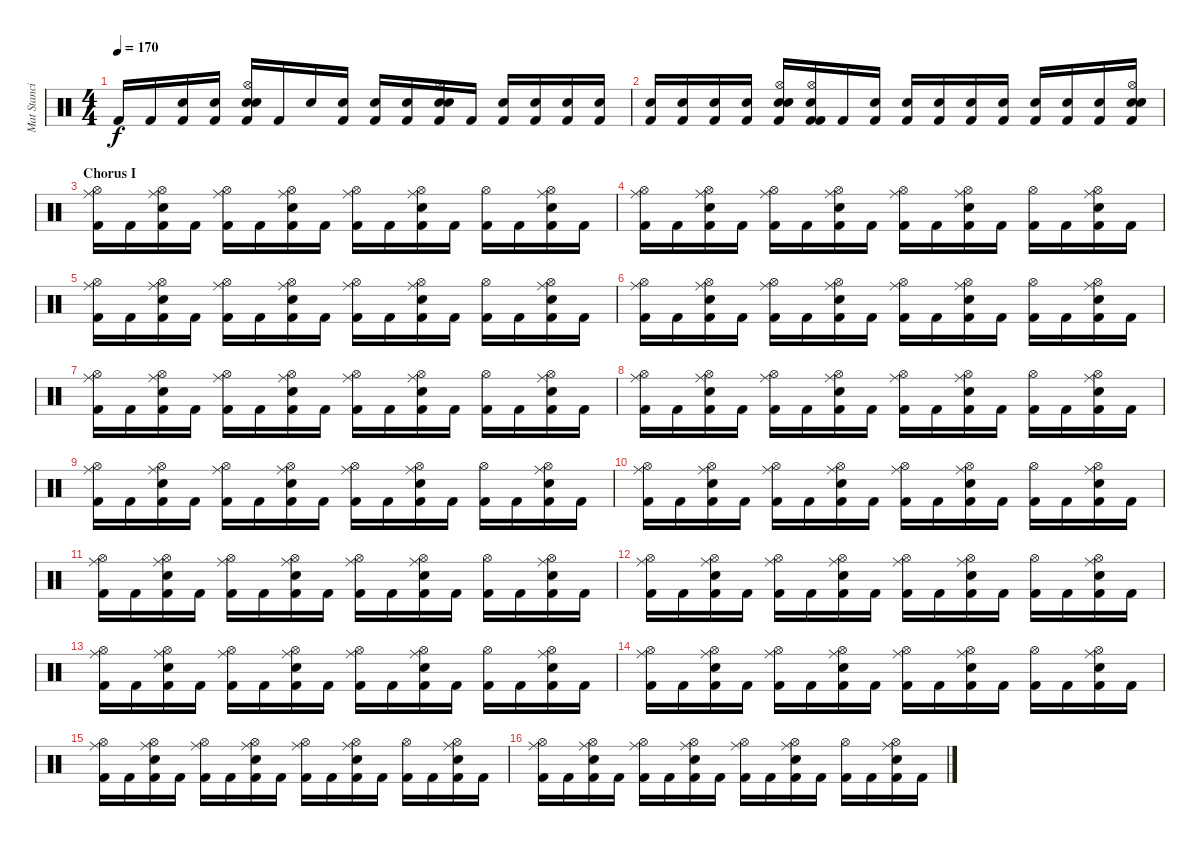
\track ("Mat Stancioiu" "Mat Stanci") {instrument percussion}
\staff {score}
\articulation defaults
\ts (4 4)
\tempo 170
\clef neutral
\ks c "Kick (hit) 2".16{dy f} "Kick (hit) 2".16
("Electric Snare (hit)" "Kick (hit) 2").16 ("Electric Snare (hit)" "Kick (hit) 2").16 ("Electric Snare (hit)" "Kick (hit) 2" "Hi-Hat (open)" "Snare (hit)").16 "Kick (hit) 2".16 "Electric Snare (hit)".16 ("Electric Snare (hit)" "Kick (hit) 2").16 ("Electric Snare (hit)" "Kick (hit) 2").16 ("Electric Snare (hit)" "Kick (hit) 2").16 ("Electric Snare (hit)" "Kick (hit) 2" "Hi-Hat (open)" "Snare (hit)").16 "Kick (hit) 2".16 ("Electric Snare (hit)" "Kick (hit) 2").16 ("Electric Snare (hit)" "Kick (hit) 2").16 ("Electric Snare (hit)" "Kick (hit) 2").16 ("Electric Snare (hit)" "Kick (hit) 2").16 |
("Electric Snare (hit)" "Kick (hit) 2").16 ("Electric Snare (hit)" "Kick (hit) 2").16 ("Electric Snare (hit)" "Kick (hit) 2").16 ("Electric Snare (hit)" "Kick (hit) 2").16 ("Electric Snare (hit)" "Kick (hit) 2" "Hi-Hat (open)" "Snare (hit)").16 ("Kick (hit) 2" "Kick (hit) 2" "Hi-Hat (open)" "Snare (hit)").16 "Kick (hit) 2".16 ("Electric Snare (hit)" "Kick (hit) 2").16 ("Electric Snare (hit)" "Kick (hit) 2").16 ("Electric Snare (hit)" "Kick (hit) 2").16 ("Electric Snare (hit)" "Kick (hit) 2").16 ("Electric Snare (hit)" "Kick (hit) 2").16 ("Electric Snare (hit)" "Kick (hit) 2").16 ("Electric Snare (hit)" "Kick (hit) 2").16 ("Electric Snare (hit)" "Kick (hit) 2").16 ("Electric Snare (hit)" "Kick (hit) 2" "Hi-Hat (open)" "Snare (hit)").16 |
\section ("" "Chorus I")
("Hi-Hat (open)" "Kick (hit) 2" "Ride (middle)").16 "Kick (hit) 2".16 ("Electric Snare (hit)" "Hi-Hat (open)" "Kick (hit) 2" "Ride (middle)").16 "Kick (hit) 2".16 ("Hi-Hat (open)" "Kick (hit) 2" "Ride (middle)").16 "Kick (hit) 2".16 ("Electric Snare (hit)" "Hi-Hat (open)" "Kick (hit) 2" "Ride (middle)").16 "Kick (hit) 2".16 ("Hi-Hat (open)" "Kick (hit) 2" "Ride (middle)").16 "Kick (hit) 2".16 ("Electric Snare (hit)" "Hi-Hat (open)" "Kick (hit) 2" "Ride (middle)").16 "Kick (hit) 2".16 ("Hi-Hat (open)" "Kick (hit) 2").16 "Kick (hit) 2".16 ("Electric Snare (hit)" "Hi-Hat (open)" "Kick (hit) 2" "Ride (middle)").16 "Kick (hit) 2".16 |
("Hi-Hat (open)" "Kick (hit) 2" "Ride (middle)").16 "Kick (hit) 2".16 ("Electric Snare (hit)" "Hi-Hat (open)" "Kick (hit) 2" "Ride (middle)").16 "Kick (hit) 2".16 ("Hi-Hat (open)" "Kick (hit) 2" "Ride (middle)").16 "Kick (hit) 2".16 ("Electric Snare (hit)" "Hi-Hat (open)" "Kick (hit) 2" "Ride (middle)").16 "Kick (hit) 2".16 ("Hi-Hat (open)" "Kick (hit) 2" "Ride (middle)").16 "Kick (hit) 2".16 ("Electric Snare (hit)" "Hi-Hat (open)" "Kick (hit) 2" "Ride (middle)").16 "Kick (hit) 2".16 ("Hi-Hat (open)" "Kick (hit) 2").16 "Kick (hit) 2".16 ("Electric Snare (hit)" "Hi-Hat (open)" "Kick (hit) 2" "Ride (middle)").16 "Kick (hit) 2".16 |
("Hi-Hat (open)" "Kick (hit) 2" "Ride (middle)").16 "Kick (hit) 2".16 ("Electric Snare (hit)" "Hi-Hat (open)" "Kick (hit) 2" "Ride (middle)").16 "Kick (hit) 2".16 ("Hi-Hat (open)" "Kick (hit) 2" "Ride (middle)").16 "Kick (hit) 2".16 ("Electric Snare (hit)" "Hi-Hat (open)" "Kick (hit) 2" "Ride (middle)").16 "Kick (hit) 2".16 ("Hi-Hat (open)" "Kick (hit) 2" "Ride (middle)").16 "Kick (hit) 2".16 ("Electric Snare (hit)" "Hi-Hat (open)" "Kick (hit) 2" "Ride (middle)").16 "Kick (hit) 2".16 ("Hi-Hat (open)" "Kick (hit) 2").16 "Kick (hit) 2".16 ("Electric Snare (hit)" "Hi-Hat (open)" "Kick (hit) 2" "Ride (middle)").16 "Kick (hit) 2".16 |
("Hi-Hat (open)" "Kick (hit) 2" "Ride (middle)").16 "Kick (hit) 2".16 ("Electric Snare (hit)" "Hi-Hat (open)" "Kick (hit) 2" "Ride (middle)").16 "Kick (hit) 2".16 ("Hi-Hat (open)" "Kick (hit) 2" "Ride (middle)").16 "Kick (hit) 2".16 ("Electric Snare (hit)" "Hi-Hat (open)" "Kick (hit) 2" "Ride (middle)").16 "Kick (hit) 2".16 ("Hi-Hat (open)" "Kick (hit) 2" "Ride (middle)").16 "Kick (hit) 2".16 ("Electric Snare (hit)" "Hi-Hat (open)" "Kick (hit) 2" "Ride (middle)").16 "Kick (hit) 2".16 ("Hi-Hat (open)" "Kick (hit) 2").16 "Kick (hit) 2".16 ("Electric Snare (hit)" "Hi-Hat (open)" "Kick (hit) 2" "Ride (middle)").16 "Kick (hit) 2".16 |
("Hi-Hat (open)" "Kick (hit) 2" "Ride (middle)").16 "Kick (hit) 2".16 ("Electric Snare (hit)" "Hi-Hat (open)" "Kick (hit) 2" "Ride (middle)").16 "Kick (hit) 2".16 ("Hi-Hat (open)" "Kick (hit) 2" "Ride (middle)").16 "Kick (hit) 2".16 ("Electric Snare (hit)" "Hi-Hat (open)" "Kick (hit) 2" "Ride (middle)").16 "Kick (hit) 2".16 ("Hi-Hat (open)" "Kick (hit) 2" "Ride (middle)").16 "Kick (hit) 2".16 ("Electric Snare (hit)" "Hi-Hat (open)" "Kick (hit) 2" "Ride (middle)").16 "Kick (hit) 2".16 ("Hi-Hat (open)" "Kick (hit) 2").16 "Kick (hit) 2".16 ("Electric Snare (hit)" "Hi-Hat (open)" "Kick (hit) 2" "Ride (middle)").16 "Kick (hit) 2".16 |
("Hi-Hat (open)" "Kick (hit) 2" "Ride (middle)").16 "Kick (hit) 2".16 ("Electric Snare (hit)" "Hi-Hat (open)" "Kick (hit) 2" "Ride (middle)").16 "Kick (hit) 2".16 ("Hi-Hat (open)" "Kick (hit) 2" "Ride (middle)").16 "Kick (hit) 2".16 ("Electric Snare (hit)" "Hi-Hat (open)" "Kick (hit) 2" "Ride (middle)").16 "Kick (hit) 2".16 ("Hi-Hat (open)" "Kick (hit) 2" "Ride (middle)").16 "Kick (hit) 2".16 ("Electric Snare (hit)" "Hi-Hat (open)" "Kick (hit) 2" "Ride (middle)").16 "Kick (hit) 2".16 ("Hi-Hat (open)" "Kick (hit) 2").16 "Kick (hit) 2".16 ("Electric Snare (hit)" "Hi-Hat (open)" "Kick (hit) 2" "Ride (middle)").16 "Kick (hit) 2".16 |
("Hi-Hat (open)" "Kick (hit) 2" "Ride (middle)").16 "Kick (hit) 2".16 ("Electric Snare (hit)" "Hi-Hat (open)" "Kick (hit) 2" "Ride (middle)").16 "Kick (hit) 2".16 ("Hi-Hat (open)" "Kick (hit) 2" "Ride (middle)").16 "Kick (hit) 2".16 ("Electric Snare (hit)" "Hi-Hat (open)" "Kick (hit) 2" "Ride (middle)").16 "Kick (hit) 2".16 ("Hi-Hat (open)" "Kick (hit) 2" "Ride (middle)").16 "Kick (hit) 2".16 ("Electric Snare (hit)" "Hi-Hat (open)" "Kick (hit) 2" "Ride (middle)").16 "Kick (hit) 2".16 ("Hi-Hat (open)" "Kick (hit) 2").16 "Kick (hit) 2".16 ("Electric Snare (hit)" "Hi-Hat (open)" "Kick (hit) 2" "Ride (middle)").16 "Kick (hit) 2".16 |
("Hi-Hat (open)" "Kick (hit) 2" "Ride (middle)").16 "Kick (hit) 2".16 ("Electric Snare (hit)" "Hi-Hat (open)" "Kick (hit) 2" "Ride (middle)").16 "Kick (hit) 2".16 ("Hi-Hat (open)" "Kick (hit) 2" "Ride (middle)").16 "Kick (hit) 2".16 ("Electric Snare (hit)" "Hi-Hat (open)" "Kick (hit) 2" "Ride (middle)").16 "Kick (hit) 2".16 ("Hi-Hat (open)" "Kick (hit) 2" "Ride (middle)").16 "Kick (hit) 2".16 ("Electric Snare (hit)" "Hi-Hat (open)" "Kick (hit) 2" "Ride (middle)").16 "Kick (hit) 2".16 ("Hi-Hat (open)" "Kick (hit) 2").16 "Kick (hit) 2".16 ("Electric Snare (hit)" "Hi-Hat (open)" "Kick (hit) 2" "Ride (middle)").16 "Kick (hit) 2".16 |
("Hi-Hat (open)" "Kick (hit) 2" "Ride (middle)").16 "Kick (hit) 2".16 ("Electric Snare (hit)" "Hi-Hat (open)" "Kick (hit) 2" "Ride (middle)").16 "Kick (hit) 2".16 ("Hi-Hat (open)" "Kick (hit) 2" "Ride (middle)").16 "Kick (hit) 2".16 ("Electric Snare (hit)" "Hi-Hat (open)" "Kick (hit) 2" "Ride (middle)").16 "Kick (hit) 2".16 ("Hi-Hat (open)" "Kick (hit) 2" "Ride (middle)").16 "Kick (hit) 2".16 ("Electric Snare (hit)" "Hi-Hat (open)" "Kick (hit) 2" "Ride (middle)").16 "Kick (hit) 2".16 ("Hi-Hat (open)" "Kick (hit) 2").16 "Kick (hit) 2".16 ("Electric Snare (hit)" "Hi-Hat (open)" "Kick (hit) 2" "Ride (middle)").16 "Kick (hit) 2".16 |
("Hi-Hat (open)" "Kick (hit) 2" "Ride (middle)").16 "Kick (hit) 2".16 ("Electric Snare (hit)" "Hi-Hat (open)" "Kick (hit) 2" "Ride (middle)").16 "Kick (hit) 2".16 ("Hi-Hat (open)" "Kick (hit) 2" "Ride (middle)").16 "Kick (hit) 2".16 ("Electric Snare (hit)" "Hi-Hat (open)" "Kick (hit) 2" "Ride (middle)").16 "Kick (hit) 2".16 ("Hi-Hat (open)" "Kick (hit) 2" "Ride (middle)").16 "Kick (hit) 2".16 ("Electric Snare (hit)" "Hi-Hat (open)" "Kick (hit) 2" "Ride (middle)").16 "Kick (hit) 2".16 ("Hi-Hat (open)" "Kick (hit) 2").16 "Kick (hit) 2".16 ("Electric Snare (hit)" "Hi-Hat (open)" "Kick (hit) 2" "Ride (middle)").16 "Kick (hit) 2".16 |
("Hi-Hat (open)" "Kick (hit) 2" "Ride (middle)").16 "Kick (hit) 2".16 ("Electric Snare (hit)" "Hi-Hat (open)" "Kick (hit) 2" "Ride (middle)").16 "Kick (hit) 2".16 ("Hi-Hat (open)" "Kick (hit) 2" "Ride (middle)").16 "Kick (hit) 2".16 ("Electric Snare (hit)" "Hi-Hat (open)" "Kick (hit) 2" "Ride (middle)").16 "Kick (hit) 2".16 ("Hi-Hat (open)" "Kick (hit) 2" "Ride (middle)").16 "Kick (hit) 2".16 ("Electric Snare (hit)" "Hi-Hat (open)" "Kick (hit) 2" "Ride (middle)").16 "Kick (hit) 2".16 ("Hi-Hat (open)" "Kick (hit) 2").16 "Kick (hit) 2".16 ("Electric Snare (hit)" "Hi-Hat (open)" "Kick (hit) 2" "Ride (middle)").16 "Kick (hit) 2".16 |
("Hi-Hat (open)" "Kick (hit) 2" "Ride (middle)").16 "Kick (hit) 2".16 ("Electric Snare (hit)" "Hi-Hat (open)" "Kick (hit) 2" "Ride (middle)").16 "Kick (hit) 2".16 ("Hi-Hat (open)" "Kick (hit) 2" "Ride (middle)").16 "Kick (hit) 2".16 ("Electric Snare (hit)" "Hi-Hat (open)" "Kick (hit) 2" "Ride (middle)").16 "Kick (hit) 2".16 ("Hi-Hat (open)" "Kick (hit) 2" "Ride (middle)").16 "Kick (hit) 2".16 ("Electric Snare (hit)" "Hi-Hat (open)" "Kick (hit) 2" "Ride (middle)").16 "Kick (hit) 2".16 ("Hi-Hat (open)" "Kick (hit) 2").16 "Kick (hit) 2".16 ("Electric Snare (hit)" "Hi-Hat (open)" "Kick (hit) 2" "Ride (middle)").16 "Kick (hit) 2".16 |
("Hi-Hat (open)" "Kick (hit) 2" "Ride (middle)").16 "Kick (hit) 2".16 ("Electric Snare (hit)" "Hi-Hat (open)" "Kick (hit) 2" "Ride (middle)").16 "Kick (hit) 2".16 ("Hi-Hat (open)" "Kick (hit) 2" "Ride (middle)").16 "Kick (hit) 2".16 ("Electric Snare (hit)" "Hi-Hat (open)" "Kick (hit) 2" "Ride (middle)").16 "Kick (hit) 2".16 ("Hi-Hat (open)" "Kick (hit) 2" "Ride (middle)").16 "Kick (hit) 2".16 ("Electric Snare (hit)" "Hi-Hat (open)" "Kick (hit) 2" "Ride (middle)").16 "Kick (hit) 2".16 ("Hi-Hat (open)" "Kick (hit) 2").16 "Kick (hit) 2".16 ("Electric Snare (hit)" "Hi-Hat (open)" "Kick (hit) 2" "Ride (middle)").16 "Kick (hit) 2".16 |
("Hi-Hat (open)" "Kick (hit) 2" "Ride (middle)").16 "Kick (hit) 2".16 ("Electric Snare (hit)" "Hi-Hat (open)" "Kick (hit) 2" "Ride (middle)").16 "Kick (hit) 2".16 ("Hi-Hat (open)" "Kick (hit) 2" "Ride (middle)").16 "Kick (hit) 2".16 ("Electric Snare (hit)" "Hi-Hat (open)" "Kick (hit) 2" "Ride (middle)").16 "Kick (hit) 2".16 ("Hi-Hat (open)" "Kick (hit) 2" "Ride (middle)").16 "Kick (hit) 2".16 ("Electric Snare (hit)" "Hi-Hat (open)" "Kick (hit) 2" "Ride (middle)").16 "Kick (hit) 2".16 ("Hi-Hat (open)" "Kick (hit) 2").16 "Kick (hit) 2".16 ("Electric Snare (hit)" "Hi-Hat (open)" "Kick (hit) 2" "Ride (middle)").16 "Kick (hit) 2".16
